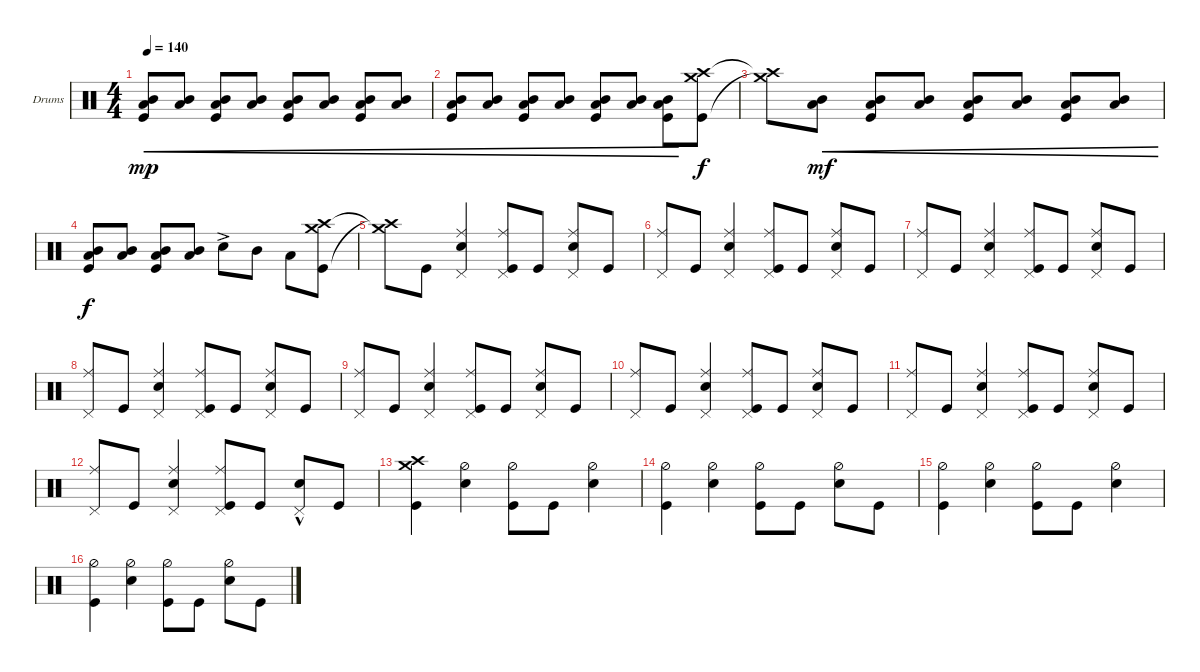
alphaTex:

\defaultSystemsLayout 4
\bracketExtendMode groupsimilarinstruments
\firstSystemTrackNameOrientation horizontal
\otherSystemsTrackNameOrientation horizontal
\track ("Steve" "Drums") {instrument percussion}
\staff {score}
\articulation defaults
\ts (4 4)
\tempo 140
\clef neutral
\ks c
("Mid Tom (hit)" "Kick (hit)" "Low Tom (hit)").8{cre dy mp} ("Mid Tom (hit)" "Low Tom (hit)").8{cre} ("Mid Tom (hit)" "Kick (hit)" "Low Tom (hit)").8{cre} ("Mid Tom (hit)" "Low Tom (hit)").8{cre} ("Mid Tom (hit)" "Kick (hit)" "Low Tom (hit)").8{cre} ("Mid Tom (hit)" "Low Tom (hit)").8{cre} ("Mid Tom (hit)" "Kick (hit)" "Low Tom (hit)").8{cre} ("Mid Tom (hit)" "Low Tom (hit)").8{cre} |
("Mid Tom (hit)" "Kick (hit)" "Low Tom (hit)").8{cre} ("Mid Tom (hit)" "Low Tom (hit)").8{cre} ("Mid Tom (hit)" "Kick (hit)" "Low Tom (hit)").8{cre} ("Mid Tom (hit)" "Low Tom (hit)").8{cre} ("Mid Tom (hit)" "Kick (hit)" "Low Tom (hit)").8{cre} ("Mid Tom (hit)" "Low Tom (hit)").8{cre} ("Mid Tom (hit)" "Kick (hit)" "Low Tom (hit)").8{cre} ("Kick (hit)" "Crash high (hit)" "Crash medium (hit)").8{dy f} |
("Crash medium (hit)"{t} "Crash high (hit)"{t}).8 ("Mid Tom (hit)" "Low Tom (hit)").8{cre dy mf} ("Mid Tom (hit)" "Kick (hit)" "Low Tom (hit)").8{cre} ("Mid Tom (hit)" "Low Tom (hit)").8{cre} ("Mid Tom (hit)" "Kick (hit)" "Low Tom (hit)").8{cre} ("Mid Tom (hit)" "Low Tom (hit)").8{cre} ("Mid Tom (hit)" "Kick (hit)" "Low Tom (hit)").8{cre} ("Mid Tom (hit)" "Low Tom (hit)").8{cre} |
("Mid Tom (hit)" "Kick (hit)" "Low Tom (hit)").8{dy f} ("Mid Tom (hit)" "Low Tom (hit)").8 ("Mid Tom (hit)" "Kick (hit)" "Low Tom (hit)").8 ("Mid Tom (hit)" "Low Tom (hit)").8 "Snare (hit) 2"{ac}.8 "Mid Tom (hit)".8 "Low Tom (hit)".8 ("Kick (hit)" "Crash high (hit)" "Crash medium (hit)").8 |
("Crash high (hit)"{t} "Crash medium (hit)"{t}).8 "Kick (hit)".8 ("Snare (hit) 2" "Ride (middle)" "Pedal Hi-Hat (hit)").4 ("Kick (hit)" "Ride (middle)" "Pedal Hi-Hat (hit)").8 "Kick (hit)".8 ("Snare (hit) 2" "Ride (middle)" "Pedal Hi-Hat (hit)").8 "Kick (hit)".8 |
("Ride (middle)" "Pedal Hi-Hat (hit)").8 "Kick (hit)".8 ("Snare (hit) 2" "Ride (middle)" "Pedal Hi-Hat (hit)").4 ("Kick (hit)" "Ride (middle)" "Pedal Hi-Hat (hit)").8 "Kick (hit)".8 ("Snare (hit) 2" "Ride (middle)" "Pedal Hi-Hat (hit)").8 "Kick (hit)".8 |
("Ride (middle)" "Pedal Hi-Hat (hit)").8 "Kick (hit)".8 ("Snare (hit) 2" "Ride (middle)" "Pedal Hi-Hat (hit)").4 ("Kick (hit)" "Ride (middle)" "Pedal Hi-Hat (hit)").8 "Kick (hit)".8 ("Snare (hit) 2" "Ride (middle)" "Pedal Hi-Hat (hit)").8 "Kick (hit)".8 |
("Ride (middle)" "Pedal Hi-Hat (hit)").8 "Kick (hit)".8 ("Snare (hit) 2" "Ride (middle)" "Pedal Hi-Hat (hit)").4 ("Kick (hit)" "Ride (middle)" "Pedal Hi-Hat (hit)").8 "Kick (hit)".8 ("Snare (hit) 2" "Ride (middle)" "Pedal Hi-Hat (hit)").8 "Kick (hit)".8 |
("Ride (middle)" "Pedal Hi-Hat (hit)").8 "Kick (hit)".8 ("Snare (hit) 2" "Ride (middle)" "Pedal Hi-Hat (hit)").4 ("Kick (hit)" "Ride (middle)" "Pedal Hi-Hat (hit)").8 "Kick (hit)".8 ("Snare (hit) 2" "Ride (middle)" "Pedal Hi-Hat (hit)").8 "Kick (hit)".8 |
("Ride (middle)" "Pedal Hi-Hat (hit)").8 "Kick (hit)".8 ("Snare (hit) 2" "Ride (middle)" "Pedal Hi-Hat (hit)").4 ("Kick (hit)" "Ride (middle)" "Pedal Hi-Hat (hit)").8 "Kick (hit)".8 ("Snare (hit) 2" "Ride (middle)" "Pedal Hi-Hat (hit)").8 "Kick (hit)".8 |
("Ride (middle)" "Pedal Hi-Hat (hit)").8 "Kick (hit)".8 ("Snare (hit) 2" "Ride (middle)" "Pedal Hi-Hat (hit)").4 ("Kick (hit)" "Ride (middle)" "Pedal Hi-Hat (hit)").8 "Kick (hit)".8 ("Snare (hit) 2" "Ride (middle)" "Pedal Hi-Hat (hit)").8 "Kick (hit)".8 |
("Ride (middle)" "Pedal Hi-Hat (hit)").8 "Kick (hit)".8 ("Snare (hit) 2" "Ride (middle)" "Pedal Hi-Hat (hit)").4 ("Kick (hit)" "Ride (middle)" "Pedal Hi-Hat (hit)").8 "Kick (hit)".8 ("Snare (hit) 2"{hac} "Pedal Hi-Hat (hit)").8 "Kick (hit)".8 |
("Kick (hit)" "Crash high (hit)" "Crash medium (hit)").4 ("Snare (hit) 2" "Hi-Hat (half)").4 ("Kick (hit)" "Hi-Hat (half)").8 "Kick (hit)".8 ("Snare (hit) 2" "Hi-Hat (half)").4 |
("Kick (hit)" "Hi-Hat (half)").4 ("Snare (hit) 2" "Hi-Hat (half)").4 ("Kick (hit)" "Hi-Hat (half)").8 "Kick (hit)".8 ("Snare (hit) 2" "Hi-Hat (half)").8 "Kick (hit)".8 |
("Kick (hit)" "Hi-Hat (half)").4 ("Snare (hit) 2" "Hi-Hat (half)").4 ("Kick (hit)" "Hi-Hat (half)").8 "Kick (hit)".8 ("Snare (hit) 2" "Hi-Hat (half)").4 |
("Kick (hit)" "Hi-Hat (half)").4 ("Snare (hit) 2" "Hi-Hat (half)").4 ("Kick (hit)" "Hi-Hat (half)").8 "Kick (hit)".8 ("Snare (hit) 2" "Hi-Hat (half)").8 "Kick (hit)".8
